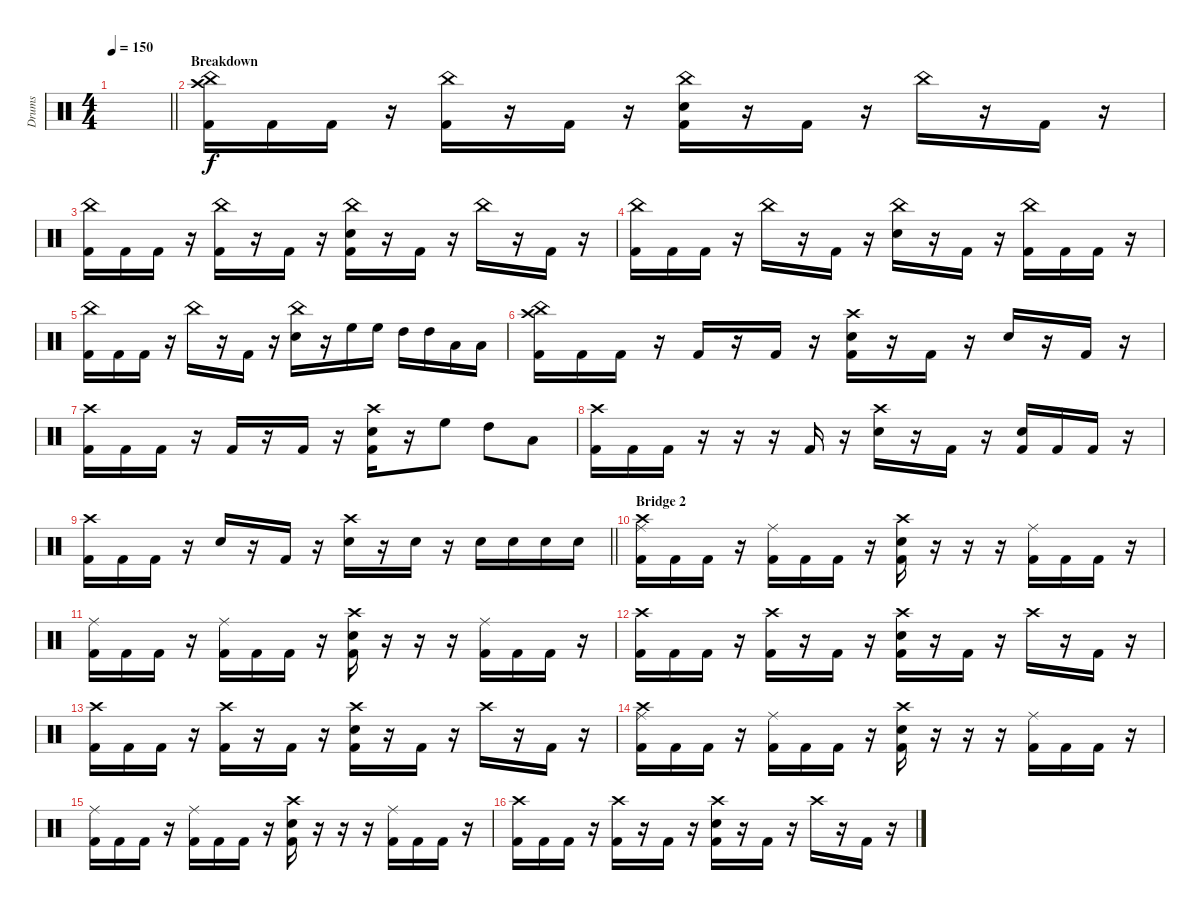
\track ("Drums" "Drums") {instrument percussion}
\staff {score}
\articulation defaults
\ts (4 4)
\tempo 150
\clef neutral
\barLineRight lightlight
\ks c
|
\section ("" "Breakdown")
("Crash high (hit)" "China (hit)" "Kick (hit) 2").16 "Kick (hit) 2".16 "Kick (hit) 2".16 r.16 ("China (hit)" "Kick (hit) 2").16 r.16 "Kick (hit) 2".16 r.16 ("China (hit)" "Snare (hit) 2" "Kick (hit) 2").16 r.16 "Kick (hit) 2".16 r.16 "China (hit)".16 r.16 "Kick (hit) 2".16 r.16 |
("China (hit)" "Kick (hit) 2").16 "Kick (hit) 2".16 "Kick (hit) 2".16 r.16 ("China (hit)" "Kick (hit) 2").16 r.16 "Kick (hit) 2".16 r.16 ("China (hit)" "Snare (hit) 2" "Kick (hit) 2").16 r.16 "Kick (hit) 2".16 r.16 "China (hit)".16 r.16 "Kick (hit) 2".16 r.16 |
("China (hit)" "Kick (hit) 2").16 "Kick (hit) 2".16 "Kick (hit) 2".16 r.16 "China (hit)".16 r.16 "Kick (hit) 2".16 r.16 ("China (hit)" "Snare (hit) 2").16 r.16 "Kick (hit) 2".16 r.16 ("China (hit)" "Kick (hit) 2").16 "Kick (hit) 2".16 "Kick (hit) 2".16 r.16 |
("China (hit)" "Kick (hit) 2").16 "Kick (hit) 2".16 "Kick (hit) 2".16 r.16 "China (hit)".16 r.16 "Kick (hit) 2".16 r.16 ("China (hit)" "Snare (hit) 2").16 r.16 "High Floor Tom (hit)".16 "High Floor Tom (hit)".16 "High Tom (hit)".16 "High Tom (hit)".16 "Low Tom (hit)".16 "Low Tom (hit)".16 |
("Crash high (hit)" "China (hit)" "Kick (hit) 2").16 "Kick (hit) 2".16 "Kick (hit) 2".16 r.16 "Kick (hit) 2".16 r.16 "Kick (hit) 2".16 r.16 ("Crash high (hit)" "Snare (hit) 2" "Kick (hit) 2").16 r.16 "Kick (hit) 2".16 r.16 "Snare (hit) 2".16 r.16 "Kick (hit) 2".16 r.16 |
("Crash high (hit)" "Kick (hit) 2").16 "Kick (hit) 2".16 "Kick (hit) 2".16 r.16 "Kick (hit) 2".16 r.16 "Kick (hit) 2".16 r.16 ("Crash high (hit)" "Snare (hit) 2" "Kick (hit) 2").16 r.16 "High Floor Tom (hit)".8 "High Tom (hit)".8 "Low Tom (hit)".8 |
("Crash high (hit)" "Kick (hit) 2").16 "Kick (hit) 2".16 "Kick (hit) 2".16 r.16 r.16 r.16 "Kick (hit) 2".16 r.16 ("Crash high (hit)" "Snare (hit) 2").16 r.16 "Kick (hit) 2".16 r.16 ("Snare (hit) 2" "Kick (hit) 2").16 "Kick (hit) 2".16 "Kick (hit) 2".16 r.16 |
\barLineRight lightlight
("Crash high (hit)" "Kick (hit) 2").16 "Kick (hit) 2".16 "Kick (hit) 2".16 r.16 "Snare (hit) 2".16 r.16 "Kick (hit) 2".16 r.16 ("Crash high (hit)" "Snare (hit) 2").16 r.16 "Snare (hit) 2".16 r.16 "Snare (hit) 2".16 "Snare (hit) 2".16 "Snare (hit) 2".16 "Snare (hit) 2".16 |
\section ("" "Bridge 2")
("Crash high (hit)" "Ride (middle)" "Kick (hit) 2").16 "Kick (hit) 2".16 "Kick (hit) 2".16 r.16 ("Ride (middle)" "Kick (hit) 2").16 "Kick (hit) 2".16 "Kick (hit) 2".16 r.16 ("Crash high (hit)" "Snare (hit) 2" "Kick (hit) 2").16 r.16 r.16 r.16 ("Ride (middle)" "Kick (hit) 2").16 "Kick (hit) 2".16 "Kick (hit) 2".16 r.16 |
("Ride (middle)" "Kick (hit) 2").16 "Kick (hit) 2".16 "Kick (hit) 2".16 r.16 ("Ride (middle)" "Kick (hit) 2").16 "Kick (hit) 2".16 "Kick (hit) 2".16 r.16 ("Crash high (hit)" "Snare (hit) 2" "Kick (hit) 2").16 r.16 r.16 r.16 ("Ride (middle)" "Kick (hit) 2").16 "Kick (hit) 2".16 "Kick (hit) 2".16 r.16 |
("Crash high (hit)" "Kick (hit) 2").16 "Kick (hit) 2".16 "Kick (hit) 2".16 r.16 ("Crash high (hit)" "Kick (hit) 2").16 r.16 "Kick (hit) 2".16 r.16 ("Crash high (hit)" "Snare (hit) 2" "Kick (hit) 2").16 r.16 "Kick (hit) 2".16 r.16 "Crash high (hit)".16 r.16 "Kick (hit) 2".16 r.16 |
("Crash high (hit)" "Kick (hit) 2").16 "Kick (hit) 2".16 "Kick (hit) 2".16 r.16 ("Crash high (hit)" "Kick (hit) 2").16 r.16 "Kick (hit) 2".16 r.16 ("Crash high (hit)" "Snare (hit) 2" "Kick (hit) 2").16 r.16 "Kick (hit) 2".16 r.16 "Crash high (hit)".16 r.16 "Kick (hit) 2".16 r.16 |
("Crash high (hit)" "Ride (middle)" "Kick (hit) 2").16 "Kick (hit) 2".16 "Kick (hit) 2".16 r.16 ("Ride (middle)" "Kick (hit) 2").16 "Kick (hit) 2".16 "Kick (hit) 2".16 r.16 ("Crash high (hit)" "Snare (hit) 2" "Kick (hit) 2").16 r.16 r.16 r.16 ("Ride (middle)" "Kick (hit) 2").16 "Kick (hit) 2".16 "Kick (hit) 2".16 r.16 |
("Ride (middle)" "Kick (hit) 2").16 "Kick (hit) 2".16 "Kick (hit) 2".16 r.16 ("Ride (middle)" "Kick (hit) 2").16 "Kick (hit) 2".16 "Kick (hit) 2".16 r.16 ("Crash high (hit)" "Snare (hit) 2" "Kick (hit) 2").16 r.16 r.16 r.16 ("Ride (middle)" "Kick (hit) 2").16 "Kick (hit) 2".16 "Kick (hit) 2".16 r.16 |
("Crash high (hit)" "Kick (hit) 2").16 "Kick (hit) 2".16 "Kick (hit) 2".16 r.16 ("Crash high (hit)" "Kick (hit) 2").16 r.16 "Kick (hit) 2".16 r.16 ("Crash high (hit)" "Snare (hit) 2" "Kick (hit) 2").16 r.16 "Kick (hit) 2".16 r.16 "Crash high (hit)".16 r.16 "Kick (hit) 2".16 r.16
